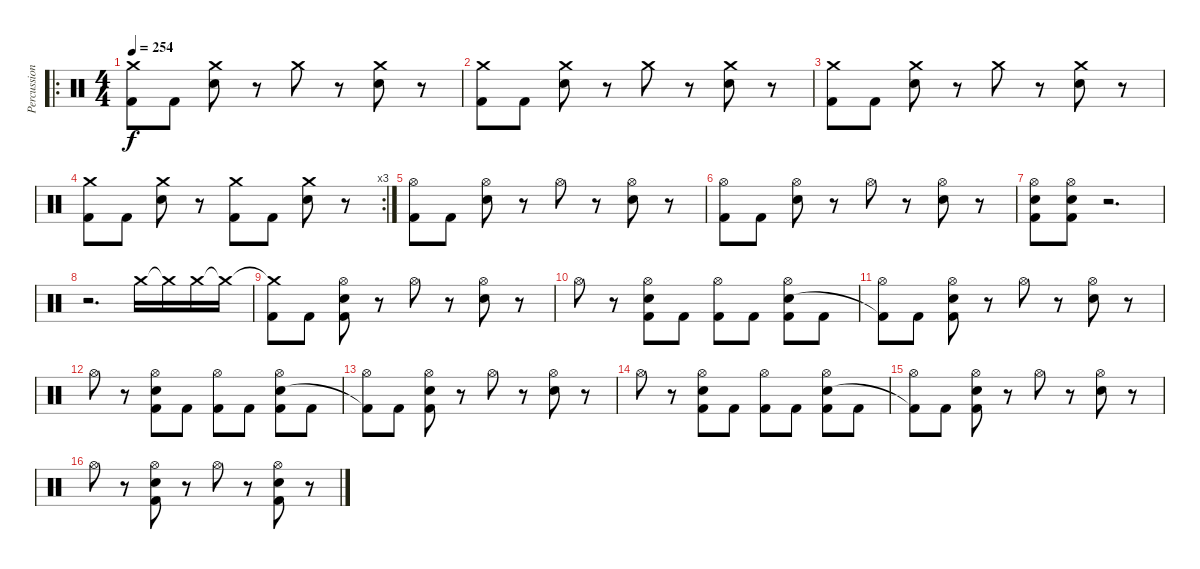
\track ("Percussion" "Percussion") {instrument percussion}
\staff {score}
\articulation defaults
\ro
\ts (4 4)
\tempo 254
\clef neutral
\ks c
("Crash medium (hit)" "Kick (hit) 2").8{dy f} "Kick (hit) 2".8 ("Crash medium (hit)" "Electric Snare (hit)").8 r.8 "Crash medium (hit)".8 r.8 ("Crash medium (hit)" "Electric Snare (hit)").8 r.8 |
("Crash medium (hit)" "Kick (hit) 2").8 "Kick (hit) 2".8 ("Crash medium (hit)" "Electric Snare (hit)").8 r.8 "Crash medium (hit)".8 r.8 ("Crash medium (hit)" "Electric Snare (hit)").8 r.8 |
("Crash medium (hit)" "Kick (hit) 2").8 "Kick (hit) 2".8 ("Crash medium (hit)" "Electric Snare (hit)").8 r.8 "Crash medium (hit)".8 r.8 ("Crash medium (hit)" "Electric Snare (hit)").8 r.8 |
\rc 3
("Crash medium (hit)" "Kick (hit) 2").8 "Kick (hit) 2".8 ("Crash medium (hit)" "Electric Snare (hit)").8 r.8 ("Crash medium (hit)" "Kick (hit) 2").8 "Kick (hit) 2".8 ("Crash medium (hit)" "Electric Snare (hit)").8 r.8 |
("Hi-Hat (open)" "Kick (hit) 2").8 "Kick (hit) 2".8 ("Hi-Hat (open)" "Electric Snare (hit)").8 r.8 "Hi-Hat (open)".8 r.8 ("Hi-Hat (open)" "Electric Snare (hit)").8 r.8 |
("Hi-Hat (open)" "Kick (hit) 2").8 "Kick (hit) 2".8 ("Hi-Hat (open)" "Electric Snare (hit)").8 r.8 "Hi-Hat (open)".8 r.8 ("Hi-Hat (open)" "Electric Snare (hit)").8 r.8 |
("Hi-Hat (open)" "Electric Snare (hit)" "Kick (hit) 2").8 ("Hi-Hat (open)" "Electric Snare (hit)" "Kick (hit) 2").8 r.2{d} |
r.2{d} "Crash medium (hit)".16 "Crash medium (hit)"{t}.16 "Crash medium (hit)".16 "Crash medium (hit)"{t}.16 |
("Crash medium (hit)"{t} "Kick (hit) 2").8 "Kick (hit) 2".8 ("Hi-Hat (open)" "Electric Snare (hit)" "Kick (hit) 2").8 r.8 "Hi-Hat (open)".8 r.8 ("Hi-Hat (open)" "Electric Snare (hit)").8 r.8 |
"Hi-Hat (open)".8 r.8 ("Hi-Hat (open)" "Electric Snare (hit)" "Kick (hit) 2").8 "Kick (hit) 2".8 ("Hi-Hat (open)" "Kick (hit) 2").8 "Kick (hit) 2".8 ("Hi-Hat (open)" "Electric Snare (hit)" "Kick (hit) 2").8 "Kick (hit) 2".8 |
("Hi-Hat (open)" "Kick (hit) 2"{t}).8 "Kick (hit) 2".8 ("Hi-Hat (open)" "Electric Snare (hit)" "Kick (hit) 2").8 r.8 "Hi-Hat (open)".8 r.8 ("Hi-Hat (open)" "Electric Snare (hit)").8 r.8 |
"Hi-Hat (open)".8 r.8 ("Hi-Hat (open)" "Electric Snare (hit)" "Kick (hit) 2").8 "Kick (hit) 2".8 ("Hi-Hat (open)" "Kick (hit) 2").8 "Kick (hit) 2".8 ("Hi-Hat (open)" "Electric Snare (hit)" "Kick (hit) 2").8 "Kick (hit) 2".8 |
("Hi-Hat (open)" "Kick (hit) 2"{t}).8 "Kick (hit) 2".8 ("Hi-Hat (open)" "Electric Snare (hit)" "Kick (hit) 2").8 r.8 "Hi-Hat (open)".8 r.8 ("Hi-Hat (open)" "Electric Snare (hit)").8 r.8 |
"Hi-Hat (open)".8 r.8 ("Hi-Hat (open)" "Electric Snare (hit)" "Kick (hit) 2").8 "Kick (hit) 2".8 ("Hi-Hat (open)" "Kick (hit) 2").8 "Kick (hit) 2".8 ("Hi-Hat (open)" "Electric Snare (hit)" "Kick (hit) 2").8 "Kick (hit) 2".8 |
("Hi-Hat (open)" "Kick (hit) 2"{t}).8 "Kick (hit) 2".8 ("Hi-Hat (open)" "Electric Snare (hit)" "Kick (hit) 2").8 r.8 "Hi-Hat (open)".8 r.8 ("Hi-Hat (open)" "Electric Snare (hit)").8 r.8 |
"Hi-Hat (open)".8 r.8 ("Hi-Hat (open)" "Electric Snare (hit)" "Kick (hit) 2").8 r.8 "Hi-Hat (open)".8 r.8 ("Hi-Hat (open)" "Electric Snare (hit)" "Kick (hit) 2").8 r.8
